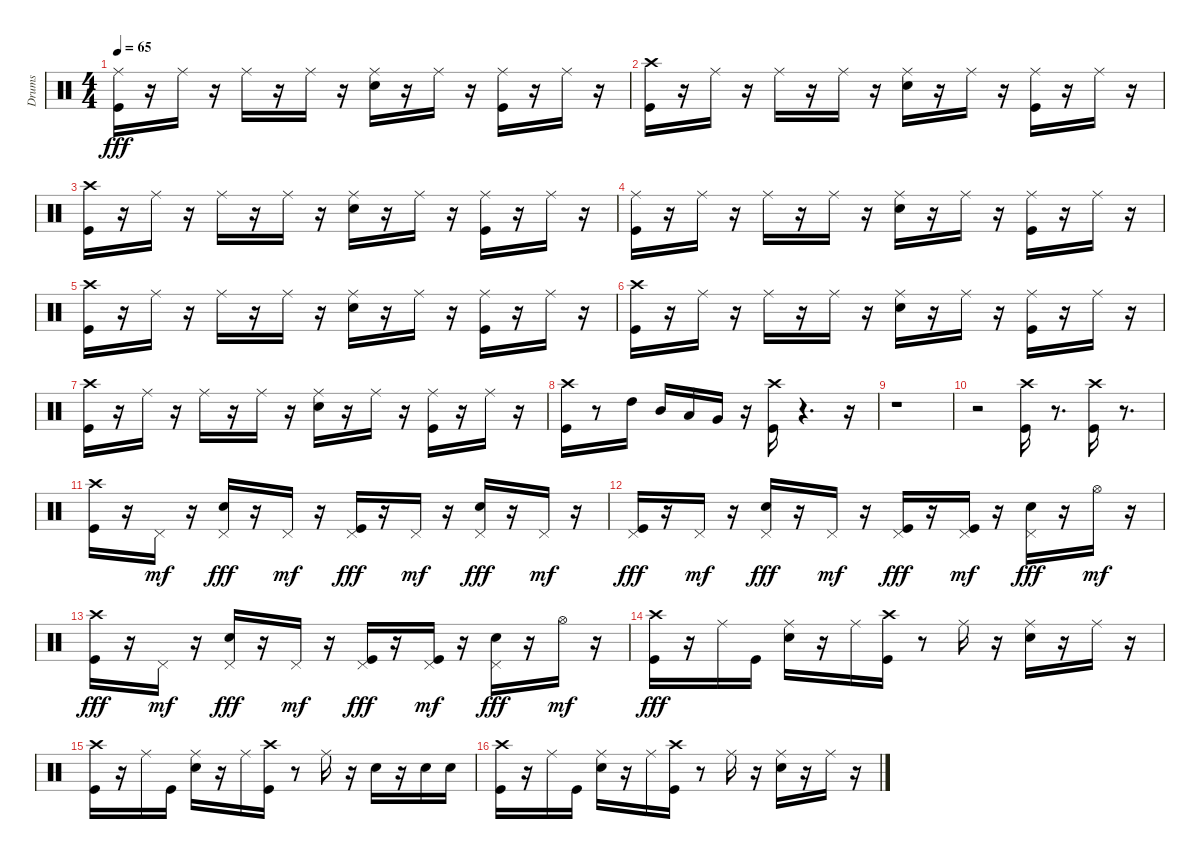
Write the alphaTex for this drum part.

\track ("Drums" "Drums") {instrument percussion}
\staff {score}
\articulation defaults
\ts (4 4)
\tempo 65
\clef neutral
\ks c
("Ride (middle)" "Kick (hit)").16{dy fff} r.16 "Ride (middle)".16 r.16 "Ride (middle)".16 r.16 "Ride (middle)".16 r.16 ("Ride (middle)" "Snare (hit) 2").16 r.16 "Ride (middle)".16 r.16 ("Ride (middle)" "Kick (hit)").16 r.16 "Ride (middle)".16 r.16 |
("Crash high (hit)" "Kick (hit)").16 r.16 "Ride (middle)".16 r.16 "Ride (middle)".16 r.16 "Ride (middle)".16 r.16 ("Snare (hit) 2" "Ride (middle)").16 r.16 "Ride (middle)".16 r.16 ("Ride (middle)" "Kick (hit)").16 r.16 "Ride (middle)".16 r.16 |
("Crash high (hit)" "Kick (hit)").16 r.16 "Ride (middle)".16 r.16 "Ride (middle)".16 r.16 "Ride (middle)".16 r.16 ("Snare (hit) 2" "Ride (middle)").16 r.16 "Ride (middle)".16 r.16 ("Ride (middle)" "Kick (hit)").16 r.16 "Ride (middle)".16 r.16 |
("Ride (middle)" "Kick (hit)").16 r.16 "Ride (middle)".16 r.16 "Ride (middle)".16 r.16 "Ride (middle)".16 r.16 ("Ride (middle)" "Snare (hit) 2").16 r.16 "Ride (middle)".16 r.16 ("Ride (middle)" "Kick (hit)").16 r.16 "Ride (middle)".16 r.16 |
("Crash high (hit)" "Kick (hit)").16 r.16 "Ride (middle)".16 r.16 "Ride (middle)".16 r.16 "Ride (middle)".16 r.16 ("Snare (hit) 2" "Ride (middle)").16 r.16 "Ride (middle)".16 r.16 ("Ride (middle)" "Kick (hit)").16 r.16 "Ride (middle)".16 r.16 |
("Crash high (hit)" "Kick (hit)").16 r.16 "Ride (middle)".16 r.16 "Ride (middle)".16 r.16 "Ride (middle)".16 r.16 ("Ride (middle)" "Snare (hit) 2").16 r.16 "Ride (middle)".16 r.16 ("Ride (middle)" "Kick (hit)").16 r.16 "Ride (middle)".16 r.16 |
("Crash high (hit)" "Kick (hit)").16 r.16 "Ride (middle)".16 r.16 "Ride (middle)".16 r.16 "Ride (middle)".16 r.16 ("Ride (middle)" "Snare (hit) 2").16 r.16 "Ride (middle)".16 r.16 ("Ride (middle)" "Kick (hit)").16 r.16 "Ride (middle)".16 r.16 |
("Crash high (hit)" "Kick (hit)").16 r.8 "High Tom (hit)".16 "Mid Tom (hit)".16 "Low Tom (hit)".16 "Very Low Tom (hit)".16 r.16 ("Crash high (hit)" "Kick (hit)").16 r.4{d} r.16 |
r.1 |
r.2 ("Crash high (hit)" "Kick (hit)").16 r.8{d} ("Crash high (hit)" "Kick (hit)").16 r.8{d} |
("Crash high (hit)" "Kick (hit)").16 r.16 "Pedal Hi-Hat (hit)".16{dy mf} r.16 ("Snare (hit) 2" "Pedal Hi-Hat (hit)").16{dy fff} r.16 "Pedal Hi-Hat (hit)".16{dy mf} r.16 ("Kick (hit)" "Pedal Hi-Hat (hit)").16{dy fff} r.16 "Pedal Hi-Hat (hit)".16{dy mf} r.16 ("Snare (hit) 2" "Pedal Hi-Hat (hit)").16{dy fff} r.16 "Pedal Hi-Hat (hit)".16{dy mf} r.16 |
("Pedal Hi-Hat (hit)" "Kick (hit)").16{dy fff} r.16 "Pedal Hi-Hat (hit)".16{dy mf} r.16 ("Pedal Hi-Hat (hit)" "Snare (hit) 2").16{dy fff} r.16 "Pedal Hi-Hat (hit)".16{dy mf} r.16 ("Pedal Hi-Hat (hit)" "Kick (hit)").16{dy fff} r.16 ("Kick (hit)" "Pedal Hi-Hat (hit)").16{dy mf} r.16 ("Pedal Hi-Hat (hit)" "Snare (hit) 2").16{dy fff} r.16 "Hi-Hat (open)".16{dy mf} r.16 |
("Kick (hit)" "Crash high (hit)").16{dy fff} r.16 "Pedal Hi-Hat (hit)".16{dy mf} r.16 ("Pedal Hi-Hat (hit)" "Snare (hit) 2").16{dy fff} r.16 "Pedal Hi-Hat (hit)".16{dy mf} r.16 ("Pedal Hi-Hat (hit)" "Kick (hit)").16{dy fff} r.16 ("Kick (hit)" "Pedal Hi-Hat (hit)").16{dy mf} r.16 ("Pedal Hi-Hat (hit)" "Snare (hit) 2").16{dy fff} r.16 "Hi-Hat (open)".16{dy mf} r.16 |
("Crash high (hit)" "Kick (hit)").16{dy fff} r.16 "Ride (middle)".16 "Kick (hit)".16 ("Ride (middle)" "Snare (hit) 2").16 r.16 "Ride (middle)".16 ("Crash high (hit)" "Kick (hit)").16 r.8 "Ride (middle)".16 r.16 ("Snare (hit) 2" "Ride (middle)").16 r.16 "Ride (middle)".16 r.16 |
("Kick (hit)" "Crash high (hit)").16 r.16 "Ride (middle)".16 "Kick (hit)".16 ("Snare (hit) 2" "Ride (middle)").16 r.16 "Ride (middle)".16 ("Kick (hit)" "Crash high (hit)").16 r.8 "Ride (middle)".16 r.16 "Snare (hit) 2".16 r.16 "Snare (hit) 2".16 "Snare (hit) 2".16 |
("Kick (hit)" "Crash high (hit)").16 r.16 "Ride (middle)".16 "Kick (hit)".16 ("Snare (hit) 2" "Ride (middle)").16 r.16 "Ride (middle)".16 ("Kick (hit)" "Crash high (hit)").16 r.8 "Ride (middle)".16 r.16 ("Ride (middle)" "Snare (hit) 2").16 r.16 "Ride (middle)".16 r.16
